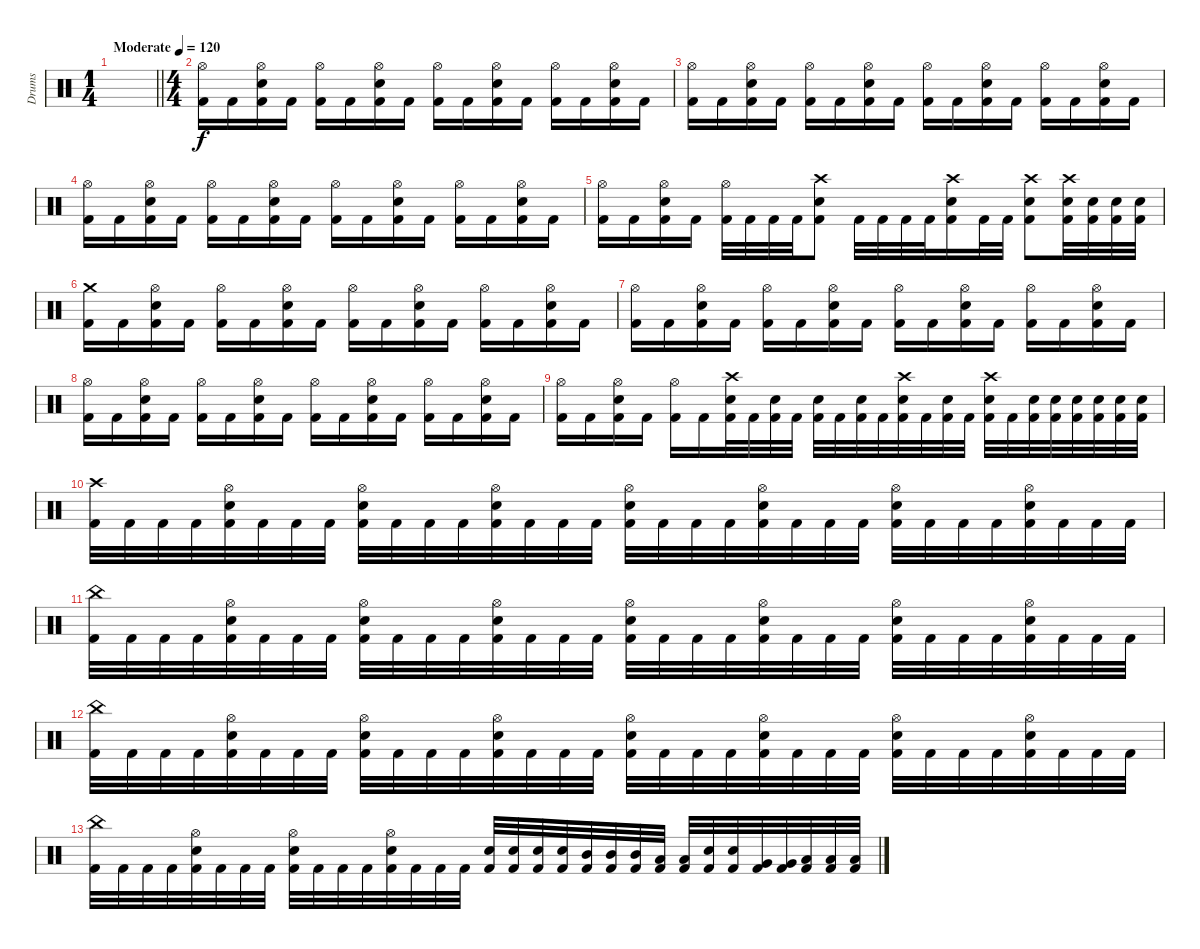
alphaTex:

\track ("Drums" "Drums") {instrument percussion}
\staff
\articulation defaults
\ts (1 4)
\tempo (120 "Moderate")
\clef neutral
\barLineRight lightlight
\ks c
|
\ts (4 4)
("Hi-Hat (open)" "Kick (hit) 2").16 "Kick (hit) 2".16 ("Hi-Hat (open)" "Electric Snare (hit)" "Kick (hit) 2").16 "Kick (hit) 2".16 ("Hi-Hat (open)" "Kick (hit) 2").16 "Kick (hit) 2".16 ("Hi-Hat (open)" "Electric Snare (hit)" "Kick (hit) 2").16 "Kick (hit) 2".16 ("Hi-Hat (open)" "Kick (hit) 2").16 "Kick (hit) 2".16 ("Hi-Hat (open)" "Electric Snare (hit)" "Kick (hit) 2").16 "Kick (hit) 2".16 ("Hi-Hat (open)" "Kick (hit) 2").16 "Kick (hit) 2".16 ("Hi-Hat (open)" "Electric Snare (hit)" "Kick (hit) 2").16 "Kick (hit) 2".16 |
("Hi-Hat (open)" "Kick (hit) 2").16 "Kick (hit) 2".16 ("Hi-Hat (open)" "Electric Snare (hit)" "Kick (hit) 2").16 "Kick (hit) 2".16 ("Hi-Hat (open)" "Kick (hit) 2").16 "Kick (hit) 2".16 ("Hi-Hat (open)" "Electric Snare (hit)" "Kick (hit) 2").16 "Kick (hit) 2".16 ("Hi-Hat (open)" "Kick (hit) 2").16 "Kick (hit) 2".16 ("Hi-Hat (open)" "Electric Snare (hit)" "Kick (hit) 2").16 "Kick (hit) 2".16 ("Hi-Hat (open)" "Kick (hit) 2").16 "Kick (hit) 2".16 ("Hi-Hat (open)" "Electric Snare (hit)" "Kick (hit) 2").16 "Kick (hit) 2".16 |
("Hi-Hat (open)" "Kick (hit) 2").16 "Kick (hit) 2".16 ("Hi-Hat (open)" "Electric Snare (hit)" "Kick (hit) 2").16 "Kick (hit) 2".16 ("Hi-Hat (open)" "Kick (hit) 2").16 "Kick (hit) 2".16 ("Hi-Hat (open)" "Electric Snare (hit)" "Kick (hit) 2").16 "Kick (hit) 2".16 ("Hi-Hat (open)" "Kick (hit) 2").16 "Kick (hit) 2".16 ("Hi-Hat (open)" "Electric Snare (hit)" "Kick (hit) 2").16 "Kick (hit) 2".16 ("Hi-Hat (open)" "Kick (hit) 2").16 "Kick (hit) 2".16 ("Hi-Hat (open)" "Electric Snare (hit)" "Kick (hit) 2").16 "Kick (hit) 2".16 |
("Hi-Hat (open)" "Kick (hit) 2").16 "Kick (hit) 2".16 ("Hi-Hat (open)" "Electric Snare (hit)" "Kick (hit) 2").16 "Kick (hit) 2".16 ("Hi-Hat (open)" "Kick (hit) 2").32 "Kick (hit) 2".32 "Kick (hit) 2".32 "Kick (hit) 2".32 ("Crash high (hit)" "Electric Snare (hit)" "Kick (hit) 2").8 "Kick (hit) 2".32 "Kick (hit) 2".32 "Kick (hit) 2".32 "Kick (hit) 2".32 ("Crash high (hit)" "Electric Snare (hit)" "Kick (hit) 2").16 "Kick (hit) 2".32 "Kick (hit) 2".32 ("Crash high (hit)" "Electric Snare (hit)" "Kick (hit) 2").8 ("Crash high (hit)" "Electric Snare (hit)" "Kick (hit) 2").32 ("Electric Snare (hit)" "Kick (hit) 2").32 ("Electric Snare (hit)" "Kick (hit) 2").32 ("Electric Snare (hit)" "Kick (hit) 2").32 |
("Crash medium (hit)" "Kick (hit) 2").16 "Kick (hit) 2".16 ("Hi-Hat (open)" "Electric Snare (hit)" "Kick (hit) 2").16 "Kick (hit) 2".16 ("Hi-Hat (open)" "Kick (hit) 2").16 "Kick (hit) 2".16 ("Hi-Hat (open)" "Electric Snare (hit)" "Kick (hit) 2").16 "Kick (hit) 2".16 ("Hi-Hat (open)" "Kick (hit) 2").16 "Kick (hit) 2".16 ("Hi-Hat (open)" "Electric Snare (hit)" "Kick (hit) 2").16 "Kick (hit) 2".16 ("Hi-Hat (open)" "Kick (hit) 2").16 "Kick (hit) 2".16 ("Hi-Hat (open)" "Electric Snare (hit)" "Kick (hit) 2").16 "Kick (hit) 2".16 |
("Hi-Hat (open)" "Kick (hit) 2").16 "Kick (hit) 2".16 ("Hi-Hat (open)" "Electric Snare (hit)" "Kick (hit) 2").16 "Kick (hit) 2".16 ("Hi-Hat (open)" "Kick (hit) 2").16 "Kick (hit) 2".16 ("Hi-Hat (open)" "Electric Snare (hit)" "Kick (hit) 2").16 "Kick (hit) 2".16 ("Hi-Hat (open)" "Kick (hit) 2").16 "Kick (hit) 2".16 ("Hi-Hat (open)" "Electric Snare (hit)" "Kick (hit) 2").16 "Kick (hit) 2".16 ("Hi-Hat (open)" "Kick (hit) 2").16 "Kick (hit) 2".16 ("Hi-Hat (open)" "Electric Snare (hit)" "Kick (hit) 2").16 "Kick (hit) 2".16 |
("Hi-Hat (open)" "Kick (hit) 2").16 "Kick (hit) 2".16 ("Hi-Hat (open)" "Electric Snare (hit)" "Kick (hit) 2").16 "Kick (hit) 2".16 ("Hi-Hat (open)" "Kick (hit) 2").16 "Kick (hit) 2".16 ("Hi-Hat (open)" "Electric Snare (hit)" "Kick (hit) 2").16 "Kick (hit) 2".16 ("Hi-Hat (open)" "Kick (hit) 2").16 "Kick (hit) 2".16 ("Hi-Hat (open)" "Electric Snare (hit)" "Kick (hit) 2").16 "Kick (hit) 2".16 ("Hi-Hat (open)" "Kick (hit) 2").16 "Kick (hit) 2".16 ("Hi-Hat (open)" "Electric Snare (hit)" "Kick (hit) 2").16 "Kick (hit) 2".16 |
("Hi-Hat (open)" "Kick (hit) 2").16 "Kick (hit) 2".16 ("Hi-Hat (open)" "Electric Snare (hit)" "Kick (hit) 2").16 "Kick (hit) 2".16 ("Hi-Hat (open)" "Kick (hit) 2").16 "Kick (hit) 2".16 ("Crash high (hit)" "Electric Snare (hit)" "Kick (hit) 2").32 "Kick (hit) 2".32 ("Electric Snare (hit)" "Kick (hit) 2").32 "Kick (hit) 2".32 ("Electric Snare (hit)" "Kick (hit) 2").32 "Kick (hit) 2".32 ("Electric Snare (hit)" "Kick (hit) 2").32 "Kick (hit) 2".32 ("Crash high (hit)" "Electric Snare (hit)" "Kick (hit) 2").32 "Kick (hit) 2".32 ("Electric Snare (hit)" "Kick (hit) 2").32 "Kick (hit) 2".32 ("Crash high (hit)" "Electric Snare (hit)" "Kick (hit) 2").32 "Kick (hit) 2".32 ("Electric Snare (hit)" "Kick (hit) 2").32 ("Electric Snare (hit)" "Kick (hit) 2").32 ("Electric Snare (hit)" "Kick (hit) 2").32 ("Electric Snare (hit)" "Kick (hit) 2").32 ("Electric Snare (hit)" "Kick (hit) 2").32 ("Electric Snare (hit)" "Kick (hit) 2").32 |
("Crash high (hit)" "Kick (hit) 2").32 "Kick (hit) 2".32 "Kick (hit) 2".32 "Kick (hit) 2".32 ("Hi-Hat (open)" "Electric Snare (hit)" "Kick (hit) 2").32 "Kick (hit) 2".32 "Kick (hit) 2".32 "Kick (hit) 2".32 ("Hi-Hat (open)" "Electric Snare (hit)" "Kick (hit) 2").32 "Kick (hit) 2".32 "Kick (hit) 2".32 "Kick (hit) 2".32 ("Hi-Hat (open)" "Electric Snare (hit)" "Kick (hit) 2").32 "Kick (hit) 2".32 "Kick (hit) 2".32 "Kick (hit) 2".32 ("Hi-Hat (open)" "Electric Snare (hit)" "Kick (hit) 2").32 "Kick (hit) 2".32 "Kick (hit) 2".32 "Kick (hit) 2".32 ("Hi-Hat (open)" "Electric Snare (hit)" "Kick (hit) 2").32 "Kick (hit) 2".32 "Kick (hit) 2".32 "Kick (hit) 2".32 ("Hi-Hat (open)" "Electric Snare (hit)" "Kick (hit) 2").32 "Kick (hit) 2".32 "Kick (hit) 2".32 "Kick (hit) 2".32 ("Hi-Hat (open)" "Electric Snare (hit)" "Kick (hit) 2").32 "Kick (hit) 2".32 "Kick (hit) 2".32 "Kick (hit) 2".32 |
("China (hit)" "Kick (hit) 2").32 "Kick (hit) 2".32 "Kick (hit) 2".32 "Kick (hit) 2".32 ("Hi-Hat (open)" "Electric Snare (hit)" "Kick (hit) 2").32 "Kick (hit) 2".32 "Kick (hit) 2".32 "Kick (hit) 2".32 ("Hi-Hat (open)" "Electric Snare (hit)" "Kick (hit) 2").32 "Kick (hit) 2".32 "Kick (hit) 2".32 "Kick (hit) 2".32 ("Hi-Hat (open)" "Electric Snare (hit)" "Kick (hit) 2").32 "Kick (hit) 2".32 "Kick (hit) 2".32 "Kick (hit) 2".32 ("Hi-Hat (open)" "Electric Snare (hit)" "Kick (hit) 2").32 "Kick (hit) 2".32 "Kick (hit) 2".32 "Kick (hit) 2".32 ("Hi-Hat (open)" "Electric Snare (hit)" "Kick (hit) 2").32 "Kick (hit) 2".32 "Kick (hit) 2".32 "Kick (hit) 2".32 ("Hi-Hat (open)" "Electric Snare (hit)" "Kick (hit) 2").32 "Kick (hit) 2".32 "Kick (hit) 2".32 "Kick (hit) 2".32 ("Hi-Hat (open)" "Electric Snare (hit)" "Kick (hit) 2").32 "Kick (hit) 2".32 "Kick (hit) 2".32 "Kick (hit) 2".32 |
("China (hit)" "Kick (hit) 2").32 "Kick (hit) 2".32 "Kick (hit) 2".32 "Kick (hit) 2".32 ("Hi-Hat (open)" "Electric Snare (hit)" "Kick (hit) 2").32 "Kick (hit) 2".32 "Kick (hit) 2".32 "Kick (hit) 2".32 ("Hi-Hat (open)" "Electric Snare (hit)" "Kick (hit) 2").32 "Kick (hit) 2".32 "Kick (hit) 2".32 "Kick (hit) 2".32 ("Hi-Hat (open)" "Electric Snare (hit)" "Kick (hit) 2").32 "Kick (hit) 2".32 "Kick (hit) 2".32 "Kick (hit) 2".32 ("Hi-Hat (open)" "Electric Snare (hit)" "Kick (hit) 2").32 "Kick (hit) 2".32 "Kick (hit) 2".32 "Kick (hit) 2".32 ("Hi-Hat (open)" "Electric Snare (hit)" "Kick (hit) 2").32 "Kick (hit) 2".32 "Kick (hit) 2".32 "Kick (hit) 2".32 ("Hi-Hat (open)" "Electric Snare (hit)" "Kick (hit) 2").32 "Kick (hit) 2".32 "Kick (hit) 2".32 "Kick (hit) 2".32 ("Hi-Hat (open)" "Electric Snare (hit)" "Kick (hit) 2").32 "Kick (hit) 2".32 "Kick (hit) 2".32 "Kick (hit) 2".32 |
("China (hit)" "Kick (hit) 2").32 "Kick (hit) 2".32 "Kick (hit) 2".32 "Kick (hit) 2".32 ("Hi-Hat (open)" "Electric Snare (hit)" "Kick (hit) 2").32 "Kick (hit) 2".32 "Kick (hit) 2".32 "Kick (hit) 2".32 ("Hi-Hat (open)" "Electric Snare (hit)" "Kick (hit) 2").32 "Kick (hit) 2".32 "Kick (hit) 2".32 "Kick (hit) 2".32 ("Hi-Hat (open)" "Electric Snare (hit)" "Kick (hit) 2").32 "Kick (hit) 2".32 "Kick (hit) 2".32 "Kick (hit) 2".32 ("Electric Snare (hit)" "Kick (hit) 2").32 ("Electric Snare (hit)" "Kick (hit) 2").32 ("Electric Snare (hit)" "Kick (hit) 2").32 ("Electric Snare (hit)" "Kick (hit) 2").32 ("Mid Tom (hit)" "Kick (hit) 2").32 ("Mid Tom (hit)" "Kick (hit) 2").32 ("Mid Tom (hit)" "Kick (hit) 2").32 ("Low Tom (hit)" "Kick (hit) 2").32 ("Low Tom (hit)" "Kick (hit) 2").32 ("Electric Snare (hit)" "Kick (hit) 2").32 ("Electric Snare (hit)" "Kick (hit) 2").32 ("Very Low Tom (hit)" "Kick (hit) 2").32 ("Very Low Tom (hit)" "Kick (hit) 2").32 ("Low Floor Tom (hit)" "Kick (hit) 2").32 ("Low Floor Tom (hit)" "Kick (hit) 2").32 ("Low Floor Tom (hit)" "Kick (hit) 2").32
